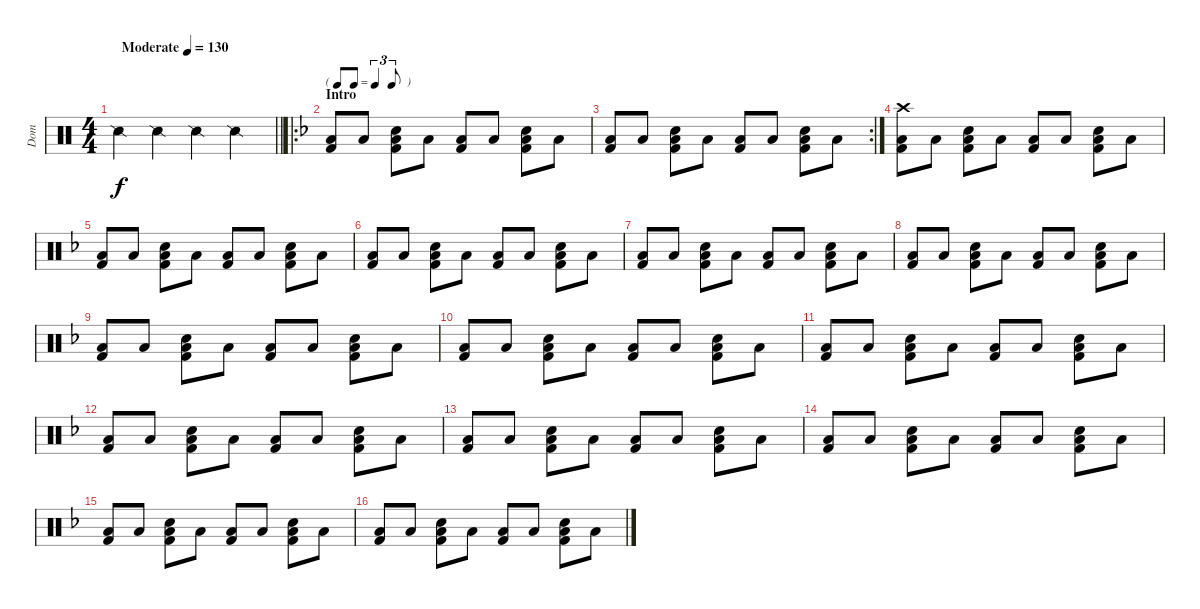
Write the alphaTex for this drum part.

\track ("Dom" "Dom") {instrument percussion}
\staff {score}
\articulation defaults
\ts (4 4)
\tempo (130 "Moderate")
\clef neutral
\barLineRight lightlight
\ks c "Snare (side stick) 2".4{dy f} "Snare (side stick) 2".4 "Snare (side stick) 2".4 "Snare (side stick) 2".4
|
\ro
\tf triplet8th
\section ("" "Intro")
\ks dminor
("Low Tom (hit)" "Kick (hit) 2").8 "Low Tom (hit)".8 ("Electric Snare (hit)" "Low Tom (hit)" "Kick (hit) 2").8 "Low Tom (hit)".8 ("Low Tom (hit)" "Kick (hit) 2").8 "Low Tom (hit)".8 ("Electric Snare (hit)" "Low Tom (hit)" "Kick (hit) 2").8 "Low Tom (hit)".8 |
\rc 2
("Low Tom (hit)" "Kick (hit) 2").8 "Low Tom (hit)".8 ("Electric Snare (hit)" "Low Tom (hit)" "Kick (hit) 2").8 "Low Tom (hit)".8 ("Low Tom (hit)" "Kick (hit) 2").8 "Low Tom (hit)".8 ("Electric Snare (hit)" "Low Tom (hit)" "Kick (hit) 2").8 "Low Tom (hit)".8 |
("Crash high (hit)" "Low Tom (hit)" "Kick (hit) 2").8{volume 10} "Low Tom (hit)".8 ("Electric Snare (hit)" "Low Tom (hit)" "Kick (hit) 2").8 "Low Tom (hit)".8 ("Low Tom (hit)" "Kick (hit) 2").8 "Low Tom (hit)".8 ("Electric Snare (hit)" "Low Tom (hit)" "Kick (hit) 2").8 "Low Tom (hit)".8 |
("Low Tom (hit)" "Kick (hit) 2").8 "Low Tom (hit)".8 ("Electric Snare (hit)" "Low Tom (hit)" "Kick (hit) 2").8 "Low Tom (hit)".8 ("Low Tom (hit)" "Kick (hit) 2").8 "Low Tom (hit)".8 ("Electric Snare (hit)" "Low Tom (hit)" "Kick (hit) 2").8 "Low Tom (hit)".8 |
("Low Tom (hit)" "Kick (hit) 2").8 "Low Tom (hit)".8 ("Electric Snare (hit)" "Low Tom (hit)" "Kick (hit) 2").8 "Low Tom (hit)".8 ("Low Tom (hit)" "Kick (hit) 2").8 "Low Tom (hit)".8 ("Electric Snare (hit)" "Low Tom (hit)" "Kick (hit) 2").8 "Low Tom (hit)".8 |
("Low Tom (hit)" "Kick (hit) 2").8 "Low Tom (hit)".8 ("Electric Snare (hit)" "Low Tom (hit)" "Kick (hit) 2").8 "Low Tom (hit)".8 ("Low Tom (hit)" "Kick (hit) 2").8 "Low Tom (hit)".8 ("Electric Snare (hit)" "Low Tom (hit)" "Kick (hit) 2").8 "Low Tom (hit)".8 |
("Low Tom (hit)" "Kick (hit) 2").8 "Low Tom (hit)".8 ("Electric Snare (hit)" "Low Tom (hit)" "Kick (hit) 2").8 "Low Tom (hit)".8 ("Low Tom (hit)" "Kick (hit) 2").8 "Low Tom (hit)".8 ("Electric Snare (hit)" "Low Tom (hit)" "Kick (hit) 2").8 "Low Tom (hit)".8 |
("Low Tom (hit)" "Kick (hit) 2").8 "Low Tom (hit)".8 ("Electric Snare (hit)" "Low Tom (hit)" "Kick (hit) 2").8 "Low Tom (hit)".8 ("Low Tom (hit)" "Kick (hit) 2").8 "Low Tom (hit)".8 ("Electric Snare (hit)" "Low Tom (hit)" "Kick (hit) 2").8 "Low Tom (hit)".8 |
("Low Tom (hit)" "Kick (hit) 2").8 "Low Tom (hit)".8 ("Electric Snare (hit)" "Low Tom (hit)" "Kick (hit) 2").8 "Low Tom (hit)".8 ("Low Tom (hit)" "Kick (hit) 2").8 "Low Tom (hit)".8 ("Electric Snare (hit)" "Low Tom (hit)" "Kick (hit) 2").8 "Low Tom (hit)".8 |
("Low Tom (hit)" "Kick (hit) 2").8 "Low Tom (hit)".8 ("Electric Snare (hit)" "Low Tom (hit)" "Kick (hit) 2").8 "Low Tom (hit)".8 ("Low Tom (hit)" "Kick (hit) 2").8 "Low Tom (hit)".8 ("Electric Snare (hit)" "Low Tom (hit)" "Kick (hit) 2").8 "Low Tom (hit)".8 |
("Low Tom (hit)" "Kick (hit) 2").8 "Low Tom (hit)".8 ("Electric Snare (hit)" "Low Tom (hit)" "Kick (hit) 2").8 "Low Tom (hit)".8 ("Low Tom (hit)" "Kick (hit) 2").8 "Low Tom (hit)".8 ("Electric Snare (hit)" "Low Tom (hit)" "Kick (hit) 2").8 "Low Tom (hit)".8 |
("Low Tom (hit)" "Kick (hit) 2").8 "Low Tom (hit)".8 ("Electric Snare (hit)" "Low Tom (hit)" "Kick (hit) 2").8 "Low Tom (hit)".8 ("Low Tom (hit)" "Kick (hit) 2").8 "Low Tom (hit)".8 ("Electric Snare (hit)" "Low Tom (hit)" "Kick (hit) 2").8 "Low Tom (hit)".8 |
("Low Tom (hit)" "Kick (hit) 2").8 "Low Tom (hit)".8 ("Electric Snare (hit)" "Low Tom (hit)" "Kick (hit) 2").8 "Low Tom (hit)".8 ("Low Tom (hit)" "Kick (hit) 2").8 "Low Tom (hit)".8 ("Electric Snare (hit)" "Low Tom (hit)" "Kick (hit) 2").8 "Low Tom (hit)".8 |
("Low Tom (hit)" "Kick (hit) 2").8 "Low Tom (hit)".8 ("Electric Snare (hit)" "Low Tom (hit)" "Kick (hit) 2").8 "Low Tom (hit)".8 ("Low Tom (hit)" "Kick (hit) 2").8 "Low Tom (hit)".8 ("Electric Snare (hit)" "Low Tom (hit)" "Kick (hit) 2").8 "Low Tom (hit)".8 |
("Low Tom (hit)" "Kick (hit) 2").8 "Low Tom (hit)".8 ("Electric Snare (hit)" "Low Tom (hit)" "Kick (hit) 2").8 "Low Tom (hit)".8 ("Low Tom (hit)" "Kick (hit) 2").8 "Low Tom (hit)".8 ("Electric Snare (hit)" "Low Tom (hit)" "Kick (hit) 2").8 "Low Tom (hit)".8
